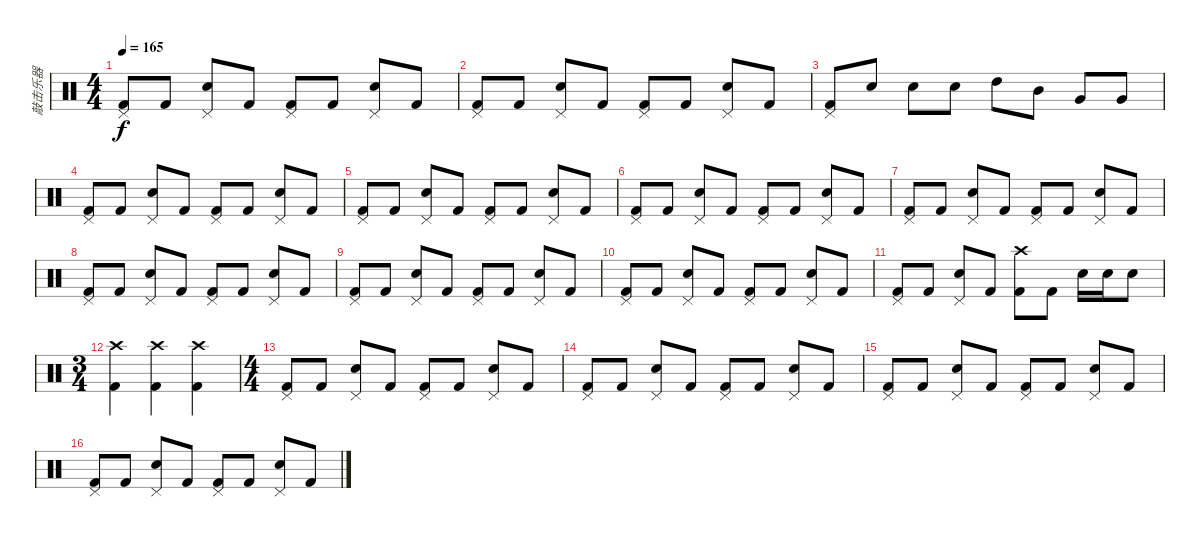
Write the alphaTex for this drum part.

\track ("敲击乐器" "敲击乐器") {instrument percussion}
\staff {score}
\articulation defaults
\ts (4 4)
\tempo 165
\clef neutral
\ks c
("Kick (hit) 2" "Pedal Hi-Hat (hit)").8{dy f} "Kick (hit) 2".8 ("Snare (hit) 2" "Pedal Hi-Hat (hit)").8 "Kick (hit) 2".8 ("Kick (hit) 2" "Pedal Hi-Hat (hit)").8 "Kick (hit) 2".8 ("Snare (hit) 2" "Pedal Hi-Hat (hit)").8 "Kick (hit) 2".8 |
("Kick (hit) 2" "Pedal Hi-Hat (hit)").8 "Kick (hit) 2".8 ("Snare (hit) 2" "Pedal Hi-Hat (hit)").8 "Kick (hit) 2".8 ("Kick (hit) 2" "Pedal Hi-Hat (hit)").8 "Kick (hit) 2".8 ("Snare (hit) 2" "Pedal Hi-Hat (hit)").8 "Kick (hit) 2".8 |
("Kick (hit) 2" "Pedal Hi-Hat (hit)").8 "Snare (hit) 2".8 "Snare (hit) 2".8 "Snare (hit) 2".8 "High Tom (hit)".8 "Mid Tom (hit)".8 "Very Low Tom (hit)".8 "Very Low Tom (hit)".8 |
("Kick (hit) 2" "Pedal Hi-Hat (hit)").8 "Kick (hit) 2".8 ("Snare (hit) 2" "Pedal Hi-Hat (hit)").8 "Kick (hit) 2".8 ("Kick (hit) 2" "Pedal Hi-Hat (hit)").8 "Kick (hit) 2".8 ("Snare (hit) 2" "Pedal Hi-Hat (hit)").8 "Kick (hit) 2".8 |
("Kick (hit) 2" "Pedal Hi-Hat (hit)").8 "Kick (hit) 2".8 ("Snare (hit) 2" "Pedal Hi-Hat (hit)").8 "Kick (hit) 2".8 ("Kick (hit) 2" "Pedal Hi-Hat (hit)").8 "Kick (hit) 2".8 ("Snare (hit) 2" "Pedal Hi-Hat (hit)").8 "Kick (hit) 2".8 |
("Kick (hit) 2" "Pedal Hi-Hat (hit)").8 "Kick (hit) 2".8 ("Snare (hit) 2" "Pedal Hi-Hat (hit)").8 "Kick (hit) 2".8 ("Kick (hit) 2" "Pedal Hi-Hat (hit)").8 "Kick (hit) 2".8 ("Snare (hit) 2" "Pedal Hi-Hat (hit)").8 "Kick (hit) 2".8 |
("Kick (hit) 2" "Pedal Hi-Hat (hit)").8 "Kick (hit) 2".8 ("Snare (hit) 2" "Pedal Hi-Hat (hit)").8 "Kick (hit) 2".8 ("Kick (hit) 2" "Pedal Hi-Hat (hit)").8 "Kick (hit) 2".8 ("Snare (hit) 2" "Pedal Hi-Hat (hit)").8 "Kick (hit) 2".8 |
("Kick (hit) 2" "Pedal Hi-Hat (hit)").8 "Kick (hit) 2".8 ("Snare (hit) 2" "Pedal Hi-Hat (hit)").8 "Kick (hit) 2".8 ("Kick (hit) 2" "Pedal Hi-Hat (hit)").8 "Kick (hit) 2".8 ("Snare (hit) 2" "Pedal Hi-Hat (hit)").8 "Kick (hit) 2".8 |
("Kick (hit) 2" "Pedal Hi-Hat (hit)").8 "Kick (hit) 2".8 ("Snare (hit) 2" "Pedal Hi-Hat (hit)").8 "Kick (hit) 2".8 ("Kick (hit) 2" "Pedal Hi-Hat (hit)").8 "Kick (hit) 2".8 ("Snare (hit) 2" "Pedal Hi-Hat (hit)").8 "Kick (hit) 2".8 |
("Kick (hit) 2" "Pedal Hi-Hat (hit)").8 "Kick (hit) 2".8 ("Snare (hit) 2" "Pedal Hi-Hat (hit)").8 "Kick (hit) 2".8 ("Kick (hit) 2" "Pedal Hi-Hat (hit)").8 "Kick (hit) 2".8 ("Snare (hit) 2" "Pedal Hi-Hat (hit)").8 "Kick (hit) 2".8 |
("Kick (hit) 2" "Pedal Hi-Hat (hit)").8 "Kick (hit) 2".8 ("Snare (hit) 2" "Pedal Hi-Hat (hit)").8 "Kick (hit) 2".8 ("Kick (hit) 2" "Crash high (hit)").8 "Kick (hit) 2".8 "Snare (hit) 2".16 "Snare (hit) 2".16 "Snare (hit) 2".8 |
\ts (3 4)
("Kick (hit) 2" "Crash high (hit)").4 ("Kick (hit) 2" "Crash high (hit)").4 ("Kick (hit) 2" "Crash high (hit)").4 |
\ts (4 4)
("Kick (hit) 2" "Pedal Hi-Hat (hit)").8 "Kick (hit) 2".8 ("Snare (hit) 2" "Pedal Hi-Hat (hit)").8 "Kick (hit) 2".8 ("Kick (hit) 2" "Pedal Hi-Hat (hit)").8 "Kick (hit) 2".8 ("Snare (hit) 2" "Pedal Hi-Hat (hit)").8 "Kick (hit) 2".8 |
("Kick (hit) 2" "Pedal Hi-Hat (hit)").8 "Kick (hit) 2".8 ("Snare (hit) 2" "Pedal Hi-Hat (hit)").8 "Kick (hit) 2".8 ("Kick (hit) 2" "Pedal Hi-Hat (hit)").8 "Kick (hit) 2".8 ("Snare (hit) 2" "Pedal Hi-Hat (hit)").8 "Kick (hit) 2".8 |
("Kick (hit) 2" "Pedal Hi-Hat (hit)").8 "Kick (hit) 2".8 ("Snare (hit) 2" "Pedal Hi-Hat (hit)").8 "Kick (hit) 2".8 ("Kick (hit) 2" "Pedal Hi-Hat (hit)").8 "Kick (hit) 2".8 ("Snare (hit) 2" "Pedal Hi-Hat (hit)").8 "Kick (hit) 2".8 |
("Kick (hit) 2" "Pedal Hi-Hat (hit)").8 "Kick (hit) 2".8 ("Snare (hit) 2" "Pedal Hi-Hat (hit)").8 "Kick (hit) 2".8 ("Kick (hit) 2" "Pedal Hi-Hat (hit)").8 "Kick (hit) 2".8 ("Snare (hit) 2" "Pedal Hi-Hat (hit)").8 "Kick (hit) 2".8
